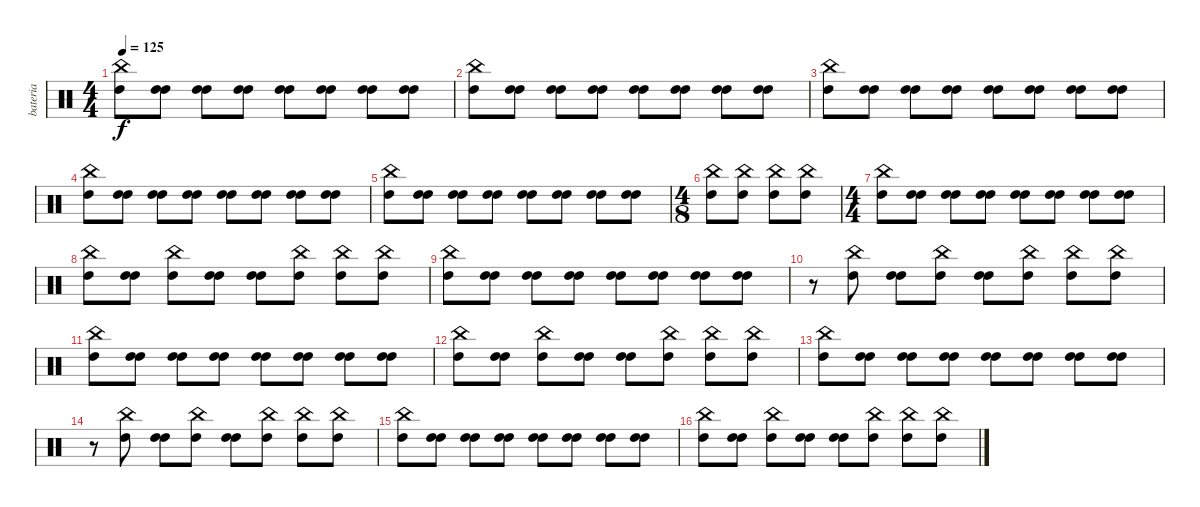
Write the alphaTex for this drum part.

\track ("bateria" "bateria") {instrument percussion}
\staff {score}
\articulation defaults
\ts (4 4)
\tempo 125
\clef neutral
\ks c
("China (hit)" "High Tom (hit)").8{dy f} ("High Tom (hit)" "High Tom (hit)").8 ("High Tom (hit)" "High Tom (hit)").8 ("High Tom (hit)" "High Tom (hit)").8 ("High Tom (hit)" "High Tom (hit)").8 ("High Tom (hit)" "High Tom (hit)").8 ("High Tom (hit)" "High Tom (hit)").8 ("High Tom (hit)" "High Tom (hit)").8 |
("China (hit)" "High Tom (hit)").8 ("High Tom (hit)" "High Tom (hit)").8 ("High Tom (hit)" "High Tom (hit)").8 ("High Tom (hit)" "High Tom (hit)").8 ("High Tom (hit)" "High Tom (hit)").8 ("High Tom (hit)" "High Tom (hit)").8 ("High Tom (hit)" "High Tom (hit)").8 ("High Tom (hit)" "High Tom (hit)").8 |
("China (hit)" "High Tom (hit)").8 ("High Tom (hit)" "High Tom (hit)").8 ("High Tom (hit)" "High Tom (hit)").8 ("High Tom (hit)" "High Tom (hit)").8 ("High Tom (hit)" "High Tom (hit)").8 ("High Tom (hit)" "High Tom (hit)").8 ("High Tom (hit)" "High Tom (hit)").8 ("High Tom (hit)" "High Tom (hit)").8 |
("China (hit)" "High Tom (hit)").8 ("High Tom (hit)" "High Tom (hit)").8 ("High Tom (hit)" "High Tom (hit)").8 ("High Tom (hit)" "High Tom (hit)").8 ("High Tom (hit)" "High Tom (hit)").8 ("High Tom (hit)" "High Tom (hit)").8 ("High Tom (hit)" "High Tom (hit)").8 ("High Tom (hit)" "High Tom (hit)").8 |
("China (hit)" "High Tom (hit)").8 ("High Tom (hit)" "High Tom (hit)").8 ("High Tom (hit)" "High Tom (hit)").8 ("High Tom (hit)" "High Tom (hit)").8 ("High Tom (hit)" "High Tom (hit)").8 ("High Tom (hit)" "High Tom (hit)").8 ("High Tom (hit)" "High Tom (hit)").8 ("High Tom (hit)" "High Tom (hit)").8 |
\ts (4 8)
("China (hit)" "High Tom (hit)").8 ("China (hit)" "High Tom (hit)").8 ("China (hit)" "High Tom (hit)").8 ("China (hit)" "High Tom (hit)").8 |
\ts (4 4)
("China (hit)" "High Tom (hit)").8 ("High Tom (hit)" "High Tom (hit)").8 ("High Tom (hit)" "High Tom (hit)").8 ("High Tom (hit)" "High Tom (hit)").8 ("High Tom (hit)" "High Tom (hit)").8 ("High Tom (hit)" "High Tom (hit)").8 ("High Tom (hit)" "High Tom (hit)").8 ("High Tom (hit)" "High Tom (hit)").8 |
("China (hit)" "High Tom (hit)").8 ("High Tom (hit)" "High Tom (hit)").8 ("China (hit)" "High Tom (hit)").8 ("High Tom (hit)" "High Tom (hit)").8 ("High Tom (hit)" "High Tom (hit)").8 ("China (hit)" "High Tom (hit)").8 ("China (hit)" "High Tom (hit)").8 ("China (hit)" "High Tom (hit)").8 |
("China (hit)" "High Tom (hit)").8 ("High Tom (hit)" "High Tom (hit)").8 ("High Tom (hit)" "High Tom (hit)").8 ("High Tom (hit)" "High Tom (hit)").8 ("High Tom (hit)" "High Tom (hit)").8 ("High Tom (hit)" "High Tom (hit)").8 ("High Tom (hit)" "High Tom (hit)").8 ("High Tom (hit)" "High Tom (hit)").8 |
r.8 ("China (hit)" "High Tom (hit)").8 ("High Tom (hit)" "High Tom (hit)").8 ("China (hit)" "High Tom (hit)").8 ("High Tom (hit)" "High Tom (hit)").8 ("China (hit)" "High Tom (hit)").8 ("China (hit)" "High Tom (hit)").8 ("China (hit)" "High Tom (hit)").8 |
("China (hit)" "High Tom (hit)").8 ("High Tom (hit)" "High Tom (hit)").8 ("High Tom (hit)" "High Tom (hit)").8 ("High Tom (hit)" "High Tom (hit)").8 ("High Tom (hit)" "High Tom (hit)").8 ("High Tom (hit)" "High Tom (hit)").8 ("High Tom (hit)" "High Tom (hit)").8 ("High Tom (hit)" "High Tom (hit)").8 |
("China (hit)" "High Tom (hit)").8 ("High Tom (hit)" "High Tom (hit)").8 ("China (hit)" "High Tom (hit)").8 ("High Tom (hit)" "High Tom (hit)").8 ("High Tom (hit)" "High Tom (hit)").8 ("China (hit)" "High Tom (hit)").8 ("China (hit)" "High Tom (hit)").8 ("China (hit)" "High Tom (hit)").8 |
("China (hit)" "High Tom (hit)").8 ("High Tom (hit)" "High Tom (hit)").8 ("High Tom (hit)" "High Tom (hit)").8 ("High Tom (hit)" "High Tom (hit)").8 ("High Tom (hit)" "High Tom (hit)").8 ("High Tom (hit)" "High Tom (hit)").8 ("High Tom (hit)" "High Tom (hit)").8 ("High Tom (hit)" "High Tom (hit)").8 |
r.8 ("China (hit)" "High Tom (hit)").8 ("High Tom (hit)" "High Tom (hit)").8 ("China (hit)" "High Tom (hit)").8 ("High Tom (hit)" "High Tom (hit)").8 ("China (hit)" "High Tom (hit)").8 ("China (hit)" "High Tom (hit)").8 ("China (hit)" "High Tom (hit)").8 |
("China (hit)" "High Tom (hit)").8 ("High Tom (hit)" "High Tom (hit)").8 ("High Tom (hit)" "High Tom (hit)").8 ("High Tom (hit)" "High Tom (hit)").8 ("High Tom (hit)" "High Tom (hit)").8 ("High Tom (hit)" "High Tom (hit)").8 ("High Tom (hit)" "High Tom (hit)").8 ("High Tom (hit)" "High Tom (hit)").8 |
("China (hit)" "High Tom (hit)").8 ("High Tom (hit)" "High Tom (hit)").8 ("China (hit)" "High Tom (hit)").8 ("High Tom (hit)" "High Tom (hit)").8 ("High Tom (hit)" "High Tom (hit)").8 ("China (hit)" "High Tom (hit)").8 ("China (hit)" "High Tom (hit)").8 ("China (hit)" "High Tom (hit)").8
